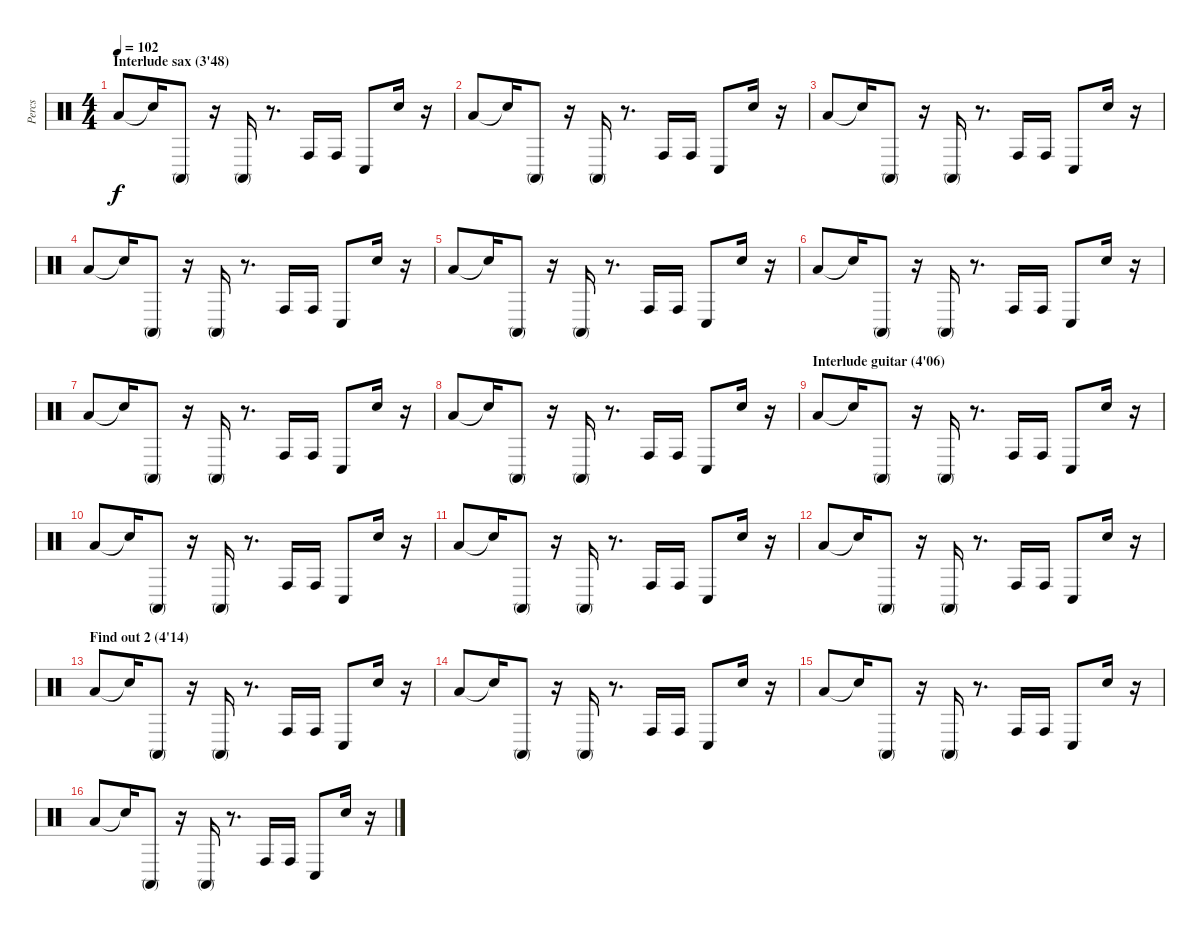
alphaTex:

\track ("Percs" "Percs") {instrument percussion}
\staff {score}
\articulation defaults
\ts (4 4)
\section ("" "Interlude sax (3'48)")
\tempo 102
\clef neutral
\ks c "Low Floor Tom (hit)".8{dy f} "Snare (hit)"{t}.16 "Conga high (mute)".8
r.16 "Conga high (mute)".16 r.8{d} "Conga high (hit)".16 "Conga high (hit)".16 "Conga low (hit)".8 "Hand Clap (hit)".16 r.16 |
"Low Floor Tom (hit)".8 "Snare (hit)"{t}.16 "Conga high (mute)".8 r.16 "Conga high (mute)".16 r.8{d} "Conga high (hit)".16 "Conga high (hit)".16 "Conga low (hit)".8 "Hand Clap (hit)".16 r.16 |
"Low Floor Tom (hit)".8 "Snare (hit)"{t}.16 "Conga high (mute)".8 r.16 "Conga high (mute)".16 r.8{d} "Conga high (hit)".16 "Conga high (hit)".16 "Conga low (hit)".8 "Hand Clap (hit)".16 r.16 |
"Low Floor Tom (hit)".8 "Snare (hit)"{t}.16 "Conga high (mute)".8 r.16 "Conga high (mute)".16 r.8{d} "Conga high (hit)".16 "Conga high (hit)".16 "Conga low (hit)".8 "Hand Clap (hit)".16 r.16 |
"Low Floor Tom (hit)".8 "Snare (hit)"{t}.16 "Conga high (mute)".8 r.16 "Conga high (mute)".16 r.8{d} "Conga high (hit)".16 "Conga high (hit)".16 "Conga low (hit)".8 "Hand Clap (hit)".16 r.16 |
"Low Floor Tom (hit)".8 "Snare (hit)"{t}.16 "Conga high (mute)".8 r.16 "Conga high (mute)".16 r.8{d} "Conga high (hit)".16 "Conga high (hit)".16 "Conga low (hit)".8 "Hand Clap (hit)".16 r.16 |
"Low Floor Tom (hit)".8 "Snare (hit)"{t}.16 "Conga high (mute)".8 r.16 "Conga high (mute)".16 r.8{d} "Conga high (hit)".16 "Conga high (hit)".16 "Conga low (hit)".8 "Hand Clap (hit)".16 r.16 |
"Low Floor Tom (hit)".8 "Snare (hit)"{t}.16 "Conga high (mute)".8 r.16 "Conga high (mute)".16 r.8{d} "Conga high (hit)".16 "Conga high (hit)".16 "Conga low (hit)".8 "Hand Clap (hit)".16 r.16 |
\section ("" "Interlude guitar (4'06)")
"Low Floor Tom (hit)".8 "Snare (hit)"{t}.16 "Conga high (mute)".8 r.16 "Conga high (mute)".16 r.8{d} "Conga high (hit)".16 "Conga high (hit)".16 "Conga low (hit)".8 "Hand Clap (hit)".16 r.16 |
"Low Floor Tom (hit)".8 "Snare (hit)"{t}.16 "Conga high (mute)".8 r.16 "Conga high (mute)".16 r.8{d} "Conga high (hit)".16 "Conga high (hit)".16 "Conga low (hit)".8 "Hand Clap (hit)".16 r.16 |
"Low Floor Tom (hit)".8 "Snare (hit)"{t}.16 "Conga high (mute)".8 r.16 "Conga high (mute)".16 r.8{d} "Conga high (hit)".16 "Conga high (hit)".16 "Conga low (hit)".8 "Hand Clap (hit)".16 r.16 |
"Low Floor Tom (hit)".8 "Snare (hit)"{t}.16 "Conga high (mute)".8 r.16 "Conga high (mute)".16 r.8{d} "Conga high (hit)".16 "Conga high (hit)".16 "Conga low (hit)".8 "Hand Clap (hit)".16 r.16 |
\section ("" "Find out 2 (4'14)")
"Low Floor Tom (hit)".8 "Snare (hit)"{t}.16 "Conga high (mute)".8 r.16 "Conga high (mute)".16 r.8{d} "Conga high (hit)".16 "Conga high (hit)".16 "Conga low (hit)".8 "Hand Clap (hit)".16 r.16 |
"Low Floor Tom (hit)".8 "Snare (hit)"{t}.16 "Conga high (mute)".8 r.16 "Conga high (mute)".16 r.8{d} "Conga high (hit)".16 "Conga high (hit)".16 "Conga low (hit)".8 "Hand Clap (hit)".16 r.16 |
"Low Floor Tom (hit)".8 "Snare (hit)"{t}.16 "Conga high (mute)".8 r.16 "Conga high (mute)".16 r.8{d} "Conga high (hit)".16 "Conga high (hit)".16 "Conga low (hit)".8 "Hand Clap (hit)".16 r.16 |
"Low Floor Tom (hit)".8 "Snare (hit)"{t}.16 "Conga high (mute)".8 r.16 "Conga high (mute)".16 r.8{d} "Conga high (hit)".16 "Conga high (hit)".16 "Conga low (hit)".8 "Hand Clap (hit)".16 r.16
